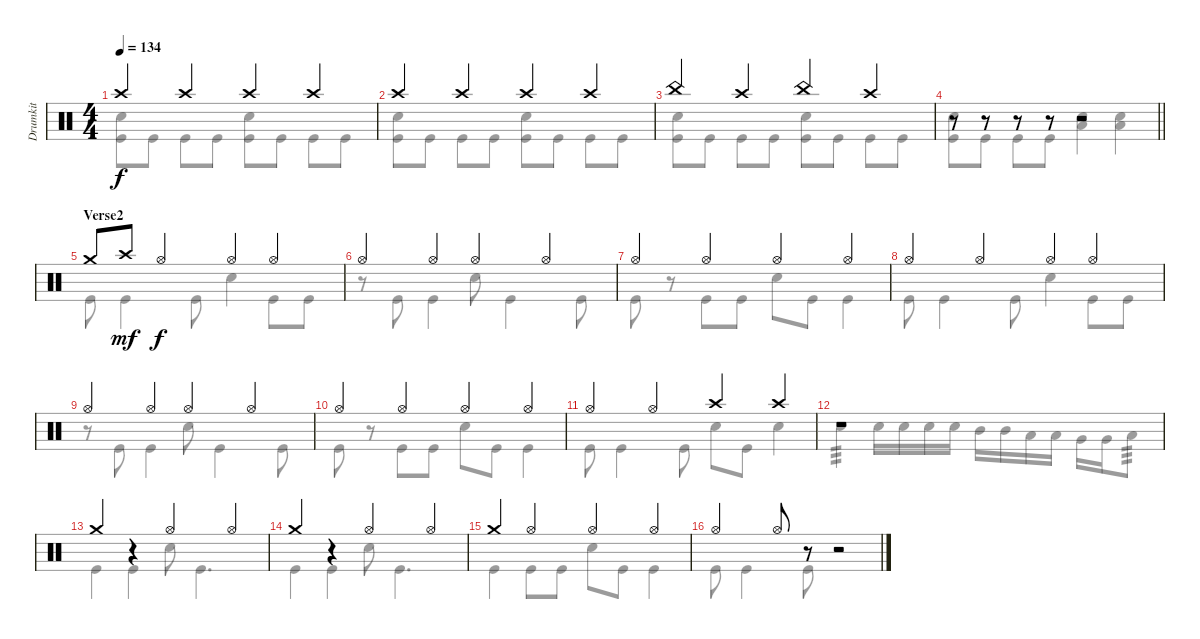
\track ("Drumkit" "Drumkit") {instrument percussion}
\staff {score}
\articulation defaults
\voice
\ts (4 4)
\tempo 134
\clef neutral
\ks c "Crash high (hit)".4{dy f} "Crash high (hit)".4 "Crash high (hit)".4 "Crash high (hit)".4
|
"Crash high (hit)".4 "Crash high (hit)".4 "Crash high (hit)".4 "Crash high (hit)".4 |
"China (hit)".4 "Crash high (hit)".4 "China (hit)".4 "Crash high (hit)".4 |
\barLineRight lightlight
r.8 r.8 r.8 r.8 r.2 |
\section ("" "Verse2")
"Crash medium (hit)".8 "Crash high (hit)".8{dy mf} "Hi-Hat (open)".4{dy f} "Hi-Hat (open)".4 "Hi-Hat (open)".4 |
"Hi-Hat (open)".4 "Hi-Hat (open)".4 "Hi-Hat (open)".4 "Hi-Hat (open)".4 |
"Hi-Hat (open)".4 "Hi-Hat (open)".4 "Hi-Hat (open)".4 "Hi-Hat (open)".4 |
"Hi-Hat (open)".4 "Hi-Hat (open)".4 "Hi-Hat (open)".4 "Hi-Hat (open)".4 |
"Hi-Hat (open)".4 "Hi-Hat (open)".4 "Hi-Hat (open)".4 "Hi-Hat (open)".4 |
"Hi-Hat (open)".4 "Hi-Hat (open)".4 "Hi-Hat (open)".4 "Hi-Hat (open)".4 |
"Hi-Hat (open)".4 "Hi-Hat (open)".4 "Crash high (hit)".4 "Crash high (hit)".4 |
r.1 |
"Crash medium (hit)".4 r.4 "Hi-Hat (open)".4 "Hi-Hat (open)".4 |
"Crash medium (hit)".4 r.4 "Hi-Hat (open)".4 "Hi-Hat (open)".4 |
"Crash medium (hit)".4 "Hi-Hat (open)".4 "Hi-Hat (open)".4 "Hi-Hat (open)".4 |
"Hi-Hat (open)".4 "Hi-Hat (open)".8 r.8 r.2
\voice
\clef neutral
\ottava regular
\simile none
\ks c
("Snare (hit) 2" "Kick (hit)").8{dy f} "Kick (hit)".8 "Kick (hit)".8 "Kick (hit)".8 ("Snare (hit) 2" "Kick (hit)").8 "Kick (hit)".8 "Kick (hit)".8 "Kick (hit)".8 |
("Snare (hit) 2" "Kick (hit)").8 "Kick (hit)".8 "Kick (hit)".8 "Kick (hit)".8 ("Snare (hit) 2" "Kick (hit)").8 "Kick (hit)".8 "Kick (hit)".8 "Kick (hit)".8 |
("Snare (hit) 2" "Kick (hit)").8 "Kick (hit)".8 "Kick (hit)".8 "Kick (hit)".8 ("Snare (hit) 2" "Kick (hit)").8 "Kick (hit)".8 "Kick (hit)".8 "Kick (hit)".8 |
\barLineRight lightlight
("Snare (hit) 2" "Kick (hit)").8 "Kick (hit)".8 "Kick (hit)".8 "Kick (hit)".8 ("Snare (hit) 2" "Low Tom (hit)").4 ("Snare (hit) 2" "Low Floor Tom (hit)").4 |
"Kick (hit)".8 "Kick (hit)".4 "Kick (hit)".8 "Snare (hit) 2".4 "Kick (hit)".8 "Kick (hit)".8 |
r.8 "Kick (hit)".8 "Kick (hit)".4 "Snare (hit) 2".8 "Kick (hit)".4 "Kick (hit)".8 |
"Kick (hit)".8 r.8 "Kick (hit)".8 "Kick (hit)".8 "Snare (hit) 2".8 "Kick (hit)".8 "Kick (hit)".4 |
"Kick (hit)".8 "Kick (hit)".4 "Kick (hit)".8 "Snare (hit) 2".4 "Kick (hit)".8 "Kick (hit)".8 |
r.8 "Kick (hit)".8 "Kick (hit)".4 "Snare (hit) 2".8 "Kick (hit)".4 "Kick (hit)".8 |
"Kick (hit)".8 r.8 "Kick (hit)".8 "Kick (hit)".8 "Snare (hit) 2".8 "Kick (hit)".8 "Kick (hit)".4 |
"Kick (hit)".8 "Kick (hit)".4 "Kick (hit)".8 "Snare (hit) 2".8 "Kick (hit)".8 "Snare (hit) 2".4 |
"Snare (hit) 2".4{tp 3} "Snare (hit) 2".16 "Snare (hit) 2".16 "Snare (hit) 2".16 "Snare (hit) 2".16 "Mid Tom (hit)".16 "Mid Tom (hit)".16 "Low Tom (hit)".16 "Low Tom (hit)".16 "Very Low Tom (hit)".16 "Very Low Tom (hit)".16 "Low Floor Tom (hit)".8{tp 3} |
"Kick (hit)".4 "Kick (hit)".4 "Snare (hit) 2".8 "Kick (hit)".4{d} |
"Kick (hit)".4 "Kick (hit)".4 "Snare (hit) 2".8 "Kick (hit)".4{d} |
"Kick (hit)".4 "Kick (hit)".8 "Kick (hit)".8 "Snare (hit) 2".8 "Kick (hit)".8 "Kick (hit)".4 |
"Kick (hit)".8 "Kick (hit)".4 "Kick (hit)".8 r.2
